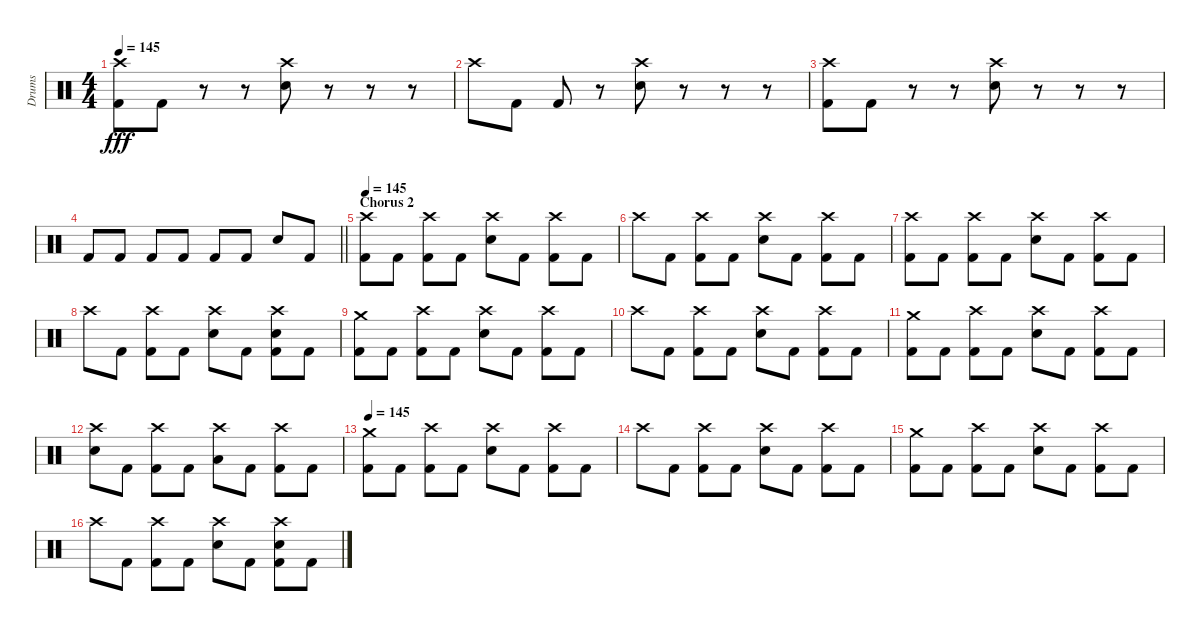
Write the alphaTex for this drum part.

\track ("Drums" "Drums") {instrument percussion}
\staff {score}
\articulation defaults
\ts (4 4)
\tempo 145
\clef neutral
\ks c
("Crash high (hit)" "Kick (hit) 2").8{dy fff} "Kick (hit) 2".8 r.8 r.8 ("Crash high (hit)" "Electric Snare (hit)").8 r.8 r.8 r.8 |
"Crash high (hit)".8 "Kick (hit) 2".8 "Kick (hit) 2".8 r.8 ("Crash high (hit)" "Electric Snare (hit)").8 r.8 r.8 r.8 |
("Crash high (hit)" "Kick (hit) 2").8 "Kick (hit) 2".8 r.8 r.8 ("Crash high (hit)" "Electric Snare (hit)").8 r.8 r.8 r.8 |
\barLineRight lightlight "Kick (hit) 2".8 "Kick (hit) 2".8 "Kick (hit) 2".8 "Kick (hit) 2".8 "Kick (hit) 2".8 "Kick (hit) 2".8 "Electric Snare (hit)".8 "Kick (hit) 2".8
|
\section ("" "Chorus 2")
\tempo 145
("Crash high (hit)" "Kick (hit) 2").8 "Kick (hit) 2".8 ("Crash high (hit)" "Kick (hit) 2").8 "Kick (hit) 2".8 ("Crash high (hit)" "Electric Snare (hit)").8 "Kick (hit) 2".8 ("Crash high (hit)" "Kick (hit) 2").8 "Kick (hit) 2".8 |
"Crash high (hit)".8 "Kick (hit) 2".8 ("Crash high (hit)" "Kick (hit) 2").8 "Kick (hit) 2".8 ("Crash high (hit)" "Electric Snare (hit)").8 "Kick (hit) 2".8 ("Crash high (hit)" "Kick (hit) 2").8 "Kick (hit) 2".8 |
("Crash high (hit)" "Kick (hit) 2").8 "Kick (hit) 2".8 ("Crash high (hit)" "Kick (hit) 2").8 "Kick (hit) 2".8 ("Crash high (hit)" "Electric Snare (hit)").8 "Kick (hit) 2".8 ("Crash high (hit)" "Kick (hit) 2").8 "Kick (hit) 2".8 |
"Crash high (hit)".8 "Kick (hit) 2".8 ("Crash high (hit)" "Kick (hit) 2").8 "Kick (hit) 2".8 ("Crash high (hit)" "Electric Snare (hit)").8 "Kick (hit) 2".8 ("Crash high (hit)" "Electric Snare (hit)" "Kick (hit) 2").8 "Kick (hit) 2".8 |
("Crash medium (hit)" "Kick (hit) 2").8 "Kick (hit) 2".8 ("Crash high (hit)" "Kick (hit) 2").8 "Kick (hit) 2".8 ("Crash high (hit)" "Electric Snare (hit)").8 "Kick (hit) 2".8 ("Crash high (hit)" "Kick (hit) 2").8 "Kick (hit) 2".8 |
"Crash high (hit)".8 "Kick (hit) 2".8 ("Crash high (hit)" "Kick (hit) 2").8 "Kick (hit) 2".8 ("Crash high (hit)" "Electric Snare (hit)").8 "Kick (hit) 2".8 ("Crash high (hit)" "Kick (hit) 2").8 "Kick (hit) 2".8 |
("Crash medium (hit)" "Kick (hit) 2").8 "Kick (hit) 2".8 ("Crash high (hit)" "Kick (hit) 2").8 "Kick (hit) 2".8 ("Crash high (hit)" "Electric Snare (hit)").8 "Kick (hit) 2".8 ("Crash high (hit)" "Kick (hit) 2").8 "Kick (hit) 2".8 |
("Crash high (hit)" "Electric Snare (hit)").8 "Kick (hit) 2".8 ("Crash high (hit)" "Kick (hit) 2").8 "Kick (hit) 2".8 ("Crash high (hit)" "Low Tom (hit)").8 "Kick (hit) 2".8 ("Crash high (hit)" "Kick (hit) 2").8 "Kick (hit) 2".8 |
\tempo 145
("Crash medium (hit)" "Kick (hit) 2").8 "Kick (hit) 2".8 ("Crash high (hit)" "Kick (hit) 2").8 "Kick (hit) 2".8 ("Crash high (hit)" "Electric Snare (hit)").8 "Kick (hit) 2".8 ("Crash high (hit)" "Kick (hit) 2").8 "Kick (hit) 2".8 |
"Crash high (hit)".8 "Kick (hit) 2".8 ("Crash high (hit)" "Kick (hit) 2").8 "Kick (hit) 2".8 ("Crash high (hit)" "Electric Snare (hit)").8 "Kick (hit) 2".8 ("Crash high (hit)" "Kick (hit) 2").8 "Kick (hit) 2".8 |
("Crash medium (hit)" "Kick (hit) 2").8 "Kick (hit) 2".8 ("Crash high (hit)" "Kick (hit) 2").8 "Kick (hit) 2".8 ("Crash high (hit)" "Electric Snare (hit)").8 "Kick (hit) 2".8 ("Crash high (hit)" "Kick (hit) 2").8 "Kick (hit) 2".8 |
"Crash high (hit)".8 "Kick (hit) 2".8 ("Crash high (hit)" "Kick (hit) 2").8 "Kick (hit) 2".8 ("Crash high (hit)" "Electric Snare (hit)").8 "Kick (hit) 2".8 ("Crash high (hit)" "Electric Snare (hit)" "Kick (hit) 2").8 "Kick (hit) 2".8
